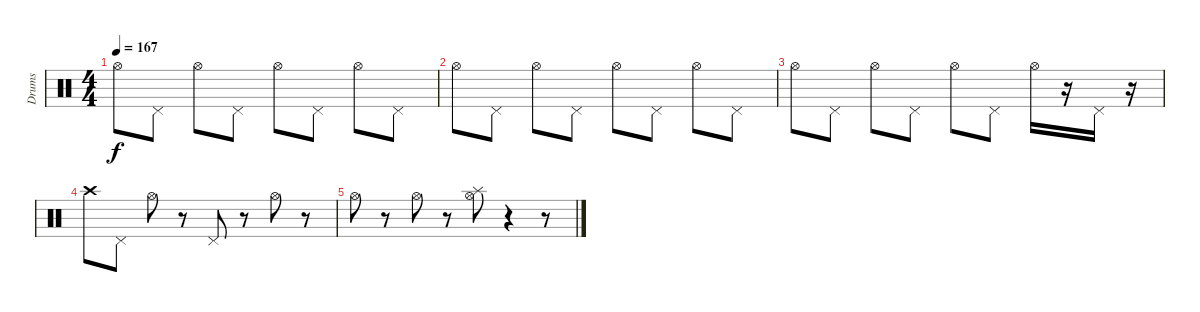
\track ("Drums" "Drums") {instrument percussion}
\staff {score}
\articulation defaults
\ts (4 4)
\tempo 167
\clef neutral
\ks c "Hi-Hat (open)".8{dy f} "Pedal Hi-Hat (hit)".8 "Hi-Hat (open)".8 "Pedal Hi-Hat (hit)".8 "Hi-Hat (open)".8 "Pedal Hi-Hat (hit)".8 "Hi-Hat (open)".8 "Pedal Hi-Hat (hit)".8
|
"Hi-Hat (open)".8 "Pedal Hi-Hat (hit)".8 "Hi-Hat (open)".8 "Pedal Hi-Hat (hit)".8 "Hi-Hat (open)".8 "Pedal Hi-Hat (hit)".8 "Hi-Hat (open)".8 "Pedal Hi-Hat (hit)".8 |
"Hi-Hat (open)".8 "Pedal Hi-Hat (hit)".8 "Hi-Hat (open)".8 "Pedal Hi-Hat (hit)".8 "Hi-Hat (open)".8 "Pedal Hi-Hat (hit)".8 "Hi-Hat (open)".16 r.16 "Pedal Hi-Hat (hit)".16 r.16 |
"Crash high (hit)".8 "Pedal Hi-Hat (hit)".8 "Hi-Hat (open)".8 r.8 "Pedal Hi-Hat (hit)".8 r.8 "Hi-Hat (open)".8 r.8 |
"Hi-Hat (open)".8 r.8 "Hi-Hat (open)".8 r.8 ("Splash (hit)" "Hi-Hat (open)").8 r.4 r.8
